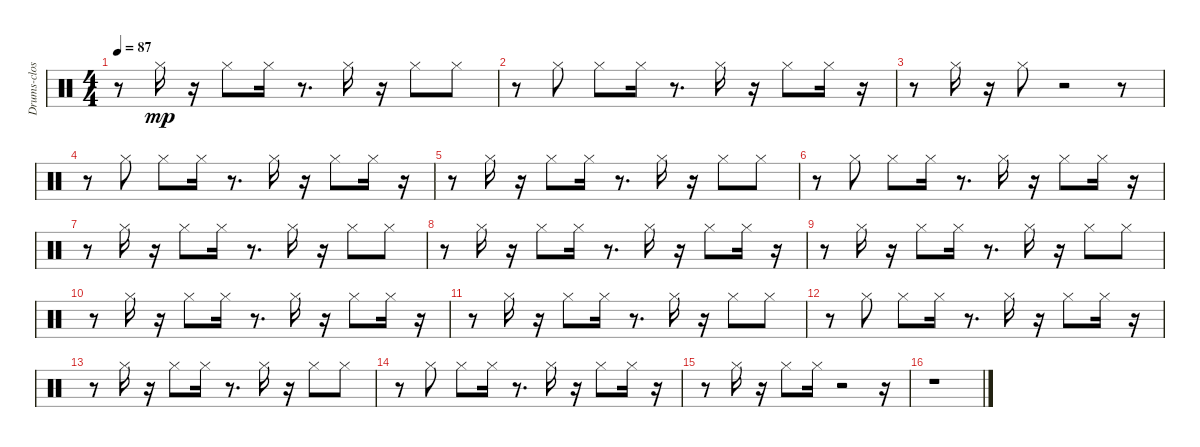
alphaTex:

\track ("Drums-closed hi-hat" "Drums-clos") {instrument percussion}
\staff {score}
\articulation defaults
\ts (4 4)
\tempo 87
\clef neutral
\ks c
r.8{dy mp} "Hi-Hat (closed)".16 r.16 "Hi-Hat (closed)".8 "Hi-Hat (closed)".16 r.8{d} "Hi-Hat (closed)".16 r.16 "Hi-Hat (closed)".8 "Hi-Hat (closed)".8 |
r.8 "Hi-Hat (closed)".8 "Hi-Hat (closed)".8 "Hi-Hat (closed)".16 r.8{d} "Hi-Hat (closed)".16 r.16 "Hi-Hat (closed)".8 "Hi-Hat (closed)".16 r.16 |
r.8 "Hi-Hat (closed)".16 r.16 "Hi-Hat (closed)".8 r.2 r.8 |
r.8 "Hi-Hat (closed)".8 "Hi-Hat (closed)".8 "Hi-Hat (closed)".16 r.8{d} "Hi-Hat (closed)".16 r.16 "Hi-Hat (closed)".8 "Hi-Hat (closed)".16 r.16 |
r.8 "Hi-Hat (closed)".16 r.16 "Hi-Hat (closed)".8 "Hi-Hat (closed)".16 r.8{d} "Hi-Hat (closed)".16 r.16 "Hi-Hat (closed)".8 "Hi-Hat (closed)".8 |
r.8 "Hi-Hat (closed)".8 "Hi-Hat (closed)".8 "Hi-Hat (closed)".16 r.8{d} "Hi-Hat (closed)".16 r.16 "Hi-Hat (closed)".8 "Hi-Hat (closed)".16 r.16 |
r.8 "Hi-Hat (closed)".16 r.16 "Hi-Hat (closed)".8 "Hi-Hat (closed)".16 r.8{d} "Hi-Hat (closed)".16 r.16 "Hi-Hat (closed)".8 "Hi-Hat (closed)".8 |
r.8 "Hi-Hat (closed)".16 r.16 "Hi-Hat (closed)".8 "Hi-Hat (closed)".16 r.8{d} "Hi-Hat (closed)".16 r.16 "Hi-Hat (closed)".8 "Hi-Hat (closed)".16 r.16 |
r.8 "Hi-Hat (closed)".16 r.16 "Hi-Hat (closed)".8 "Hi-Hat (closed)".16 r.8{d} "Hi-Hat (closed)".16 r.16 "Hi-Hat (closed)".8 "Hi-Hat (closed)".8 |
r.8 "Hi-Hat (closed)".16 r.16 "Hi-Hat (closed)".8 "Hi-Hat (closed)".16 r.8{d} "Hi-Hat (closed)".16 r.16 "Hi-Hat (closed)".8 "Hi-Hat (closed)".16 r.16 |
r.8 "Hi-Hat (closed)".16 r.16 "Hi-Hat (closed)".8 "Hi-Hat (closed)".16 r.8{d} "Hi-Hat (closed)".16 r.16 "Hi-Hat (closed)".8 "Hi-Hat (closed)".8 |
r.8 "Hi-Hat (closed)".8 "Hi-Hat (closed)".8 "Hi-Hat (closed)".16 r.8{d} "Hi-Hat (closed)".16 r.16 "Hi-Hat (closed)".8 "Hi-Hat (closed)".16 r.16 |
r.8 "Hi-Hat (closed)".16 r.16 "Hi-Hat (closed)".8 "Hi-Hat (closed)".16 r.8{d} "Hi-Hat (closed)".16 r.16 "Hi-Hat (closed)".8 "Hi-Hat (closed)".8 |
r.8 "Hi-Hat (closed)".8 "Hi-Hat (closed)".8 "Hi-Hat (closed)".16 r.8{d} "Hi-Hat (closed)".16 r.16 "Hi-Hat (closed)".8 "Hi-Hat (closed)".16 r.16 |
r.8 "Hi-Hat (closed)".16 r.16 "Hi-Hat (closed)".8 "Hi-Hat (closed)".16 r.2 r.16 |
r.1
